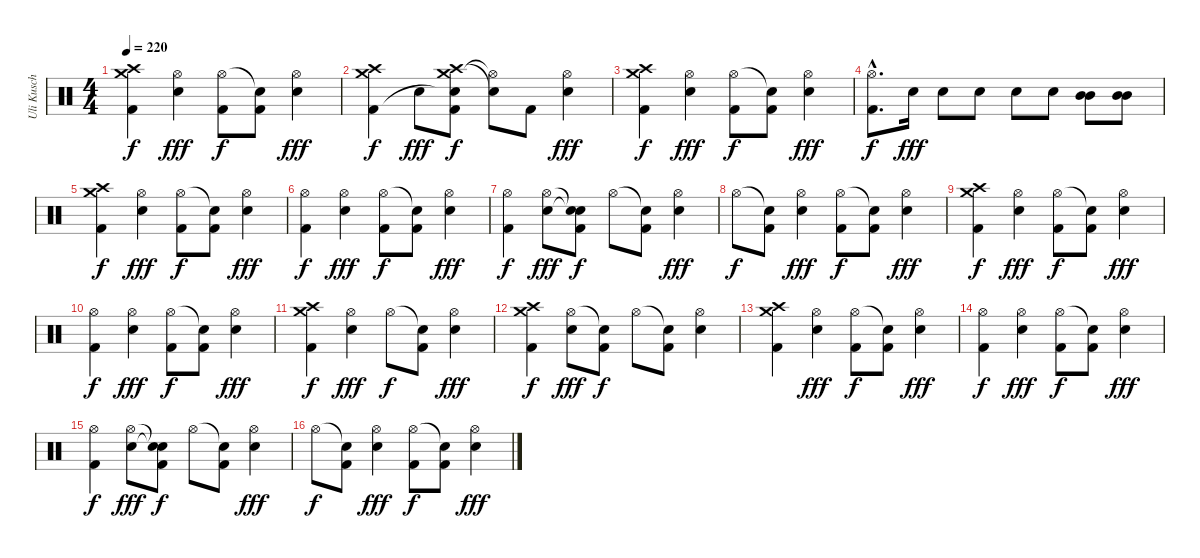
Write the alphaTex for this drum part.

\track ("Uli Kusch" "Uli Kusch") {instrument percussion}
\staff {score}
\articulation defaults
\ts (4 4)
\tempo 220
\clef neutral
\ks c
("Crash medium (hit)" "Crash high (hit)" "Kick (hit) 2").4{dy f} ("Hi-Hat (open)" "Electric Snare (hit)").4{dy fff} ("Hi-Hat (open)" "Kick (hit) 2").8{dy f} ("Snare (hit)"{t} "Kick (hit) 2").8 ("Hi-Hat (open)" "Electric Snare (hit)").4{dy fff} |
("Crash high (hit)" "Crash medium (hit)" "Kick (hit) 2").4{dy f} "Electric Snare (hit)".8{dy fff} ("Crash medium (hit)" "Crash high (hit)" "Snare (hit)"{t} "Kick (hit) 2").8{dy f} ("Hi-Hat (open)"{t} "Snare (hit)"{t}).8 "Kick (hit) 2".8 ("Hi-Hat (open)" "Electric Snare (hit)").4{dy fff} |
("Crash high (hit)" "Crash medium (hit)" "Kick (hit) 2").4{dy f} ("Hi-Hat (open)" "Electric Snare (hit)").4{dy fff} ("Hi-Hat (open)" "Kick (hit) 2").8{dy f} ("Snare (hit)"{t} "Kick (hit) 2").8 ("Hi-Hat (open)" "Electric Snare (hit)").4{dy fff} |
("Hi-Hat (open)"{hac} "Kick (hit) 2"{hac}).8{d dy f} "Electric Snare (hit)".16{dy fff} "Electric Snare (hit)".8 "Electric Snare (hit)".8 "Electric Snare (hit)".8 "Electric Snare (hit)".8 ("Mid Tom (hit)" "Mid Tom (hit)").8 ("Mid Tom (hit)" "Mid Tom (hit)").8 |
("Crash medium (hit)" "Crash high (hit)" "Kick (hit) 2").4{dy f} ("Hi-Hat (open)" "Electric Snare (hit)").4{dy fff} ("Hi-Hat (open)" "Kick (hit) 2").8{dy f} ("Snare (hit)"{t} "Kick (hit) 2").8 ("Hi-Hat (open)" "Electric Snare (hit)").4{dy fff} |
("Hi-Hat (open)" "Kick (hit) 2").4{dy f} ("Hi-Hat (open)" "Electric Snare (hit)").4{dy fff} ("Hi-Hat (open)" "Kick (hit) 2").8{dy f} ("Snare (hit)"{t} "Kick (hit) 2").8 ("Hi-Hat (open)" "Electric Snare (hit)").4{dy fff} |
("Hi-Hat (open)" "Kick (hit) 2").4{dy f} ("Hi-Hat (open)" "Electric Snare (hit)").8{dy fff} ("Snare (hit)"{t} "Snare (hit)"{t} "Kick (hit) 2").8{dy f} "Hi-Hat (open)".8 ("Snare (hit)"{t} "Kick (hit) 2").8 ("Hi-Hat (open)" "Electric Snare (hit)").4{dy fff} |
"Hi-Hat (open)".8{dy f} ("Snare (hit)"{t} "Kick (hit) 2").8 ("Hi-Hat (open)" "Electric Snare (hit)").4{dy fff} ("Hi-Hat (open)" "Kick (hit) 2").8{dy f} ("Snare (hit)"{t} "Kick (hit) 2").8 ("Hi-Hat (open)" "Electric Snare (hit)").4{dy fff} |
("Crash high (hit)" "Crash medium (hit)" "Kick (hit) 2").4{dy f} ("Hi-Hat (open)" "Electric Snare (hit)").4{dy fff} ("Hi-Hat (open)" "Kick (hit) 2").8{dy f} ("Snare (hit)"{t} "Kick (hit) 2").8 ("Hi-Hat (open)" "Electric Snare (hit)").4{dy fff} |
("Hi-Hat (open)" "Kick (hit) 2").4{dy f} ("Hi-Hat (open)" "Electric Snare (hit)").4{dy fff} ("Hi-Hat (open)" "Kick (hit) 2").8{dy f} ("Snare (hit)"{t} "Kick (hit) 2").8 ("Hi-Hat (open)" "Electric Snare (hit)").4{dy fff} |
("Crash high (hit)" "Crash medium (hit)" "Kick (hit) 2").4{dy f} ("Hi-Hat (open)" "Electric Snare (hit)").4{dy fff} "Hi-Hat (open)".8{dy f} ("Snare (hit)"{t} "Kick (hit) 2").8 ("Hi-Hat (open)" "Electric Snare (hit)").4{dy fff} |
("Crash medium (hit)" "Crash high (hit)" "Kick (hit) 2").4{dy f} ("Hi-Hat (open)" "Electric Snare (hit)").8{dy fff} ("Snare (hit)"{t} "Kick (hit) 2").8{dy f} "Hi-Hat (open)".8 ("Snare (hit)"{t} "Kick (hit) 2").8 ("Hi-Hat (open)" "Electric Snare (hit)").4 |
("Crash medium (hit)" "Crash high (hit)" "Kick (hit) 2").4 ("Hi-Hat (open)" "Electric Snare (hit)").4{dy fff} ("Hi-Hat (open)" "Kick (hit) 2").8{dy f} ("Snare (hit)"{t} "Kick (hit) 2").8 ("Hi-Hat (open)" "Electric Snare (hit)").4{dy fff} |
("Hi-Hat (open)" "Kick (hit) 2").4{dy f} ("Hi-Hat (open)" "Electric Snare (hit)").4{dy fff} ("Hi-Hat (open)" "Kick (hit) 2").8{dy f} ("Snare (hit)"{t} "Kick (hit) 2").8 ("Hi-Hat (open)" "Electric Snare (hit)").4{dy fff} |
("Hi-Hat (open)" "Kick (hit) 2").4{dy f} ("Hi-Hat (open)" "Electric Snare (hit)").8{dy fff} ("Snare (hit)"{t} "Snare (hit)"{t} "Kick (hit) 2").8{dy f} "Hi-Hat (open)".8 ("Snare (hit)"{t} "Kick (hit) 2").8 ("Hi-Hat (open)" "Electric Snare (hit)").4{dy fff} |
"Hi-Hat (open)".8{dy f} ("Snare (hit)"{t} "Kick (hit) 2").8 ("Hi-Hat (open)" "Electric Snare (hit)").4{dy fff} ("Hi-Hat (open)" "Kick (hit) 2").8{dy f} ("Snare (hit)"{t} "Kick (hit) 2").8 ("Hi-Hat (open)" "Electric Snare (hit)").4{dy fff}
